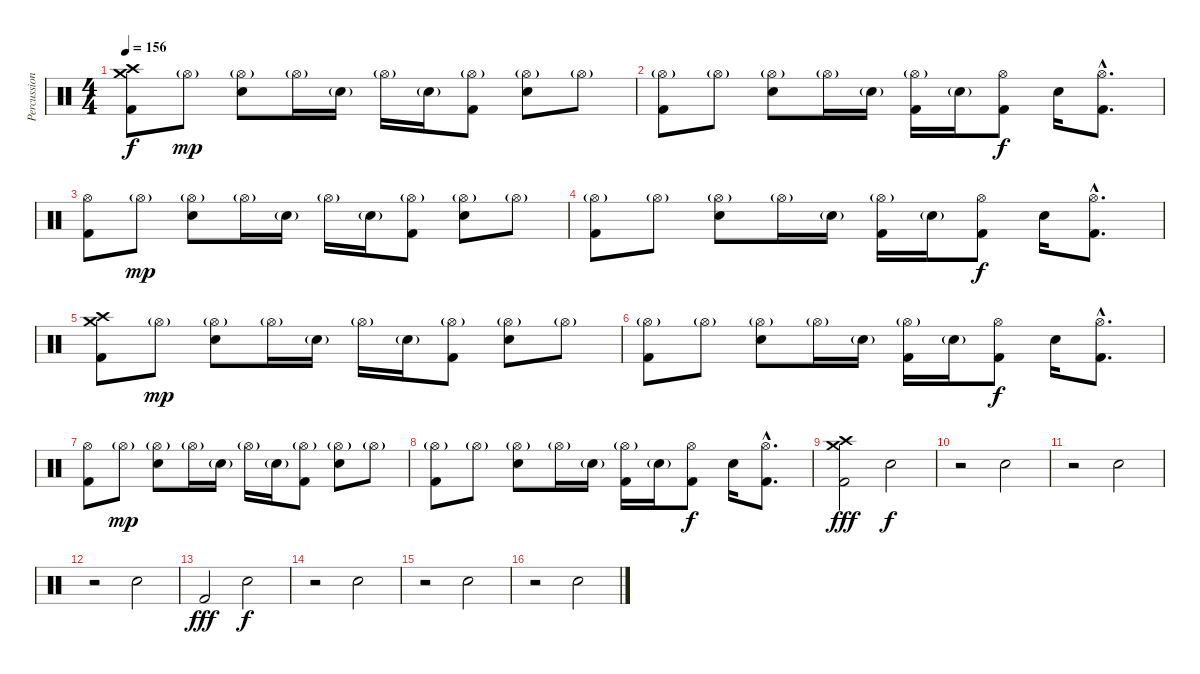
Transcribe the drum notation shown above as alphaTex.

\track ("Percussion" "Percussion") {instrument percussion}
\staff {score}
\articulation defaults
\ts (4 4)
\tempo 156
\clef neutral
\ks c
("Crash high (hit)" "Crash medium (hit)" "Kick (hit) 2").8{dy f} "Hi-Hat (open)"{g}.8{dy mp} ("Hi-Hat (open)"{g} "Electric Snare (hit)").8 "Hi-Hat (open)"{g}.16 "Electric Snare (hit)"{g}.16 "Hi-Hat (open)"{g}.16 "Electric Snare (hit)"{g}.16 ("Hi-Hat (open)"{g} "Kick (hit) 2").8 ("Hi-Hat (open)"{g} "Electric Snare (hit)").8 "Hi-Hat (open)"{g}.8 |
("Hi-Hat (open)"{g} "Kick (hit) 2").8 "Hi-Hat (open)"{g}.8 ("Hi-Hat (open)"{g} "Electric Snare (hit)").8 "Hi-Hat (open)"{g}.16 "Electric Snare (hit)"{g}.16 ("Hi-Hat (open)"{g} "Kick (hit) 2").16 "Electric Snare (hit)"{g}.16 ("Hi-Hat (open)" "Kick (hit) 2").8{dy f} "Electric Snare (hit)".16 ("Hi-Hat (open)"{hac} "Kick (hit) 2"{hac}).8{d} |
("Hi-Hat (open)" "Kick (hit) 2").8 "Hi-Hat (open)"{g}.8{dy mp} ("Hi-Hat (open)"{g} "Electric Snare (hit)").8 "Hi-Hat (open)"{g}.16 "Electric Snare (hit)"{g}.16 "Hi-Hat (open)"{g}.16 "Electric Snare (hit)"{g}.16 ("Hi-Hat (open)"{g} "Kick (hit) 2").8 ("Hi-Hat (open)"{g} "Electric Snare (hit)").8 "Hi-Hat (open)"{g}.8 |
("Hi-Hat (open)"{g} "Kick (hit) 2").8 "Hi-Hat (open)"{g}.8 ("Hi-Hat (open)"{g} "Electric Snare (hit)").8 "Hi-Hat (open)"{g}.16 "Electric Snare (hit)"{g}.16 ("Hi-Hat (open)"{g} "Kick (hit) 2").16 "Electric Snare (hit)"{g}.16 ("Hi-Hat (open)" "Kick (hit) 2").8{dy f} "Electric Snare (hit)".16 ("Hi-Hat (open)"{hac} "Kick (hit) 2"{hac}).8{d} |
("Crash high (hit)" "Crash medium (hit)" "Kick (hit) 2").8 "Hi-Hat (open)"{g}.8{dy mp} ("Hi-Hat (open)"{g} "Electric Snare (hit)").8 "Hi-Hat (open)"{g}.16 "Electric Snare (hit)"{g}.16 "Hi-Hat (open)"{g}.16 "Electric Snare (hit)"{g}.16 ("Hi-Hat (open)"{g} "Kick (hit) 2").8 ("Hi-Hat (open)"{g} "Electric Snare (hit)").8 "Hi-Hat (open)"{g}.8 |
("Hi-Hat (open)"{g} "Kick (hit) 2").8 "Hi-Hat (open)"{g}.8 ("Hi-Hat (open)"{g} "Electric Snare (hit)").8 "Hi-Hat (open)"{g}.16 "Electric Snare (hit)"{g}.16 ("Hi-Hat (open)"{g} "Kick (hit) 2").16 "Electric Snare (hit)"{g}.16 ("Hi-Hat (open)" "Kick (hit) 2").8{dy f} "Electric Snare (hit)".16 ("Hi-Hat (open)"{hac} "Kick (hit) 2"{hac}).8{d} |
("Hi-Hat (open)" "Kick (hit) 2").8 "Hi-Hat (open)"{g}.8{dy mp} ("Hi-Hat (open)"{g} "Electric Snare (hit)").8 "Hi-Hat (open)"{g}.16 "Electric Snare (hit)"{g}.16 "Hi-Hat (open)"{g}.16 "Electric Snare (hit)"{g}.16 ("Hi-Hat (open)"{g} "Kick (hit) 2").8 ("Hi-Hat (open)"{g} "Electric Snare (hit)").8 "Hi-Hat (open)"{g}.8 |
("Hi-Hat (open)"{g} "Kick (hit) 2").8 "Hi-Hat (open)"{g}.8 ("Hi-Hat (open)"{g} "Electric Snare (hit)").8 "Hi-Hat (open)"{g}.16 "Electric Snare (hit)"{g}.16 ("Hi-Hat (open)"{g} "Kick (hit) 2").16 "Electric Snare (hit)"{g}.16 ("Hi-Hat (open)" "Kick (hit) 2").8{dy f} "Electric Snare (hit)".16 ("Hi-Hat (open)"{hac} "Kick (hit) 2"{hac}).8{d} |
("Crash medium (hit)" "Crash high (hit)" "Kick (hit) 2").2{dy fff} "Electric Snare (hit)".2{dy f} |
r.2 "Electric Snare (hit)".2 |
r.2 "Electric Snare (hit)".2 |
r.2 "Electric Snare (hit)".2 |
"Kick (hit) 2".2{dy fff} "Electric Snare (hit)".2{dy f} |
r.2 "Electric Snare (hit)".2 |
r.2 "Electric Snare (hit)".2 |
r.2 "Electric Snare (hit)".2
